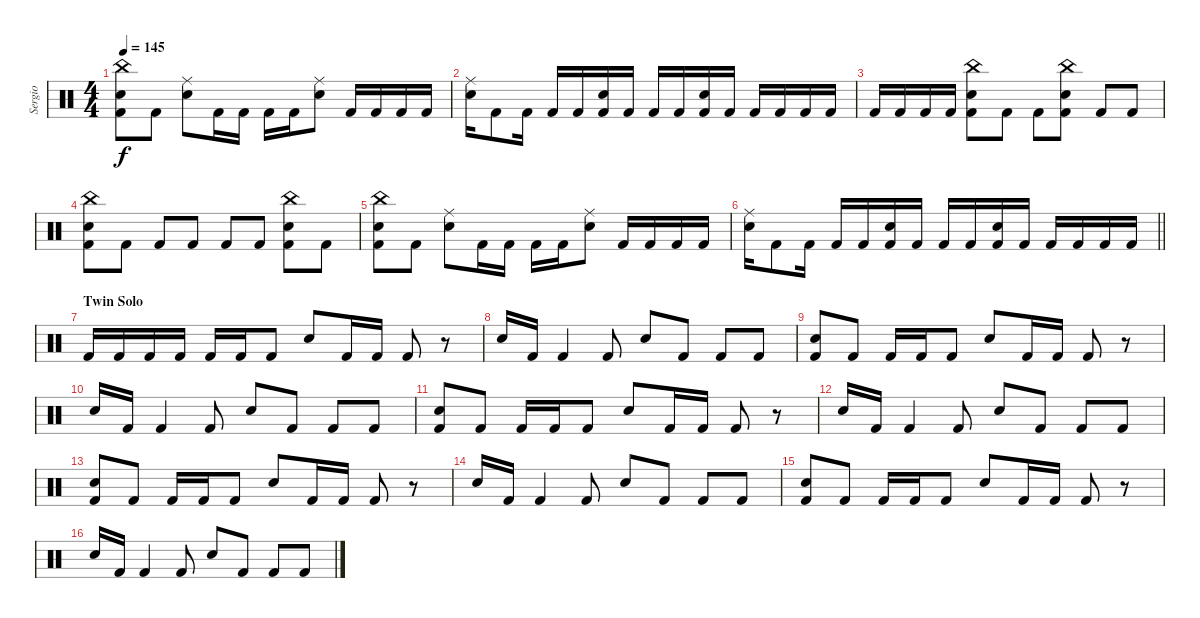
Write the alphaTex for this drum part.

\track ("Sergio" "Sergio") {instrument percussion}
\staff {score}
\articulation defaults
\ts (4 4)
\tempo 145
\clef neutral
\ks c
("China (hit)" "Electric Snare (hit)" "Kick (hit) 2").8{dy f} "Kick (hit) 2".8 ("Ride (middle)" "Electric Snare (hit)").8 "Kick (hit) 2".16 "Kick (hit) 2".16 "Kick (hit) 2".16 "Kick (hit) 2".16 ("Ride (middle)" "Electric Snare (hit)").8 "Kick (hit) 2".16 "Kick (hit) 2".16 "Kick (hit) 2".16 "Kick (hit) 2".16 |
("Ride (middle)" "Electric Snare (hit)").16 "Kick (hit) 2".8 "Kick (hit) 2".16 "Kick (hit) 2".16 "Kick (hit) 2".16 ("Electric Snare (hit)" "Kick (hit) 2").16 "Kick (hit) 2".16 "Kick (hit) 2".16 "Kick (hit) 2".16 ("Electric Snare (hit)" "Kick (hit) 2").16 "Kick (hit) 2".16 "Kick (hit) 2".16 "Kick (hit) 2".16 "Kick (hit) 2".16 "Kick (hit) 2".16 |
"Kick (hit) 2".16 "Kick (hit) 2".16 "Kick (hit) 2".16 "Kick (hit) 2".16 ("China (hit)" "Electric Snare (hit)" "Kick (hit) 2").8 "Kick (hit) 2".8 "Kick (hit) 2".8 ("China (hit)" "Electric Snare (hit)" "Kick (hit) 2").8 "Kick (hit) 2".8 "Kick (hit) 2".8 |
("China (hit)" "Electric Snare (hit)" "Kick (hit) 2").8 "Kick (hit) 2".8 "Kick (hit) 2".8 "Kick (hit) 2".8 "Kick (hit) 2".8 "Kick (hit) 2".8 ("China (hit)" "Electric Snare (hit)" "Kick (hit) 2").8 "Kick (hit) 2".8 |
("China (hit)" "Electric Snare (hit)" "Kick (hit) 2").8 "Kick (hit) 2".8 ("Ride (middle)" "Electric Snare (hit)").8 "Kick (hit) 2".16 "Kick (hit) 2".16 "Kick (hit) 2".16 "Kick (hit) 2".16 ("Ride (middle)" "Electric Snare (hit)").8 "Kick (hit) 2".16 "Kick (hit) 2".16 "Kick (hit) 2".16 "Kick (hit) 2".16 |
\barLineRight lightlight
("Ride (middle)" "Electric Snare (hit)").16 "Kick (hit) 2".8 "Kick (hit) 2".16 "Kick (hit) 2".16 "Kick (hit) 2".16 ("Electric Snare (hit)" "Kick (hit) 2").16 "Kick (hit) 2".16 "Kick (hit) 2".16 "Kick (hit) 2".16 ("Electric Snare (hit)" "Kick (hit) 2").16 "Kick (hit) 2".16 "Kick (hit) 2".16 "Kick (hit) 2".16 "Kick (hit) 2".16 "Kick (hit) 2".16 |
\section ("" "Twin Solo")
"Kick (hit) 2".16 "Kick (hit) 2".16 "Kick (hit) 2".16 "Kick (hit) 2".16 "Kick (hit) 2".16 "Kick (hit) 2".16 "Kick (hit) 2".8 "Electric Snare (hit)".8 "Kick (hit) 2".16 "Kick (hit) 2".16 "Kick (hit) 2".8 r.8 |
"Electric Snare (hit)".16 "Kick (hit) 2".16 "Kick (hit) 2".4 "Kick (hit) 2".8 "Electric Snare (hit)".8 "Kick (hit) 2".8 "Kick (hit) 2".8 "Kick (hit) 2".8 |
("Electric Snare (hit)" "Kick (hit) 2").8 "Kick (hit) 2".8 "Kick (hit) 2".16 "Kick (hit) 2".16 "Kick (hit) 2".8 "Electric Snare (hit)".8 "Kick (hit) 2".16 "Kick (hit) 2".16 "Kick (hit) 2".8 r.8 |
"Electric Snare (hit)".16 "Kick (hit) 2".16 "Kick (hit) 2".4 "Kick (hit) 2".8 "Electric Snare (hit)".8 "Kick (hit) 2".8 "Kick (hit) 2".8 "Kick (hit) 2".8 |
("Electric Snare (hit)" "Kick (hit) 2").8 "Kick (hit) 2".8 "Kick (hit) 2".16 "Kick (hit) 2".16 "Kick (hit) 2".8 "Electric Snare (hit)".8 "Kick (hit) 2".16 "Kick (hit) 2".16 "Kick (hit) 2".8 r.8 |
"Electric Snare (hit)".16 "Kick (hit) 2".16 "Kick (hit) 2".4 "Kick (hit) 2".8 "Electric Snare (hit)".8 "Kick (hit) 2".8 "Kick (hit) 2".8 "Kick (hit) 2".8 |
("Electric Snare (hit)" "Kick (hit) 2").8 "Kick (hit) 2".8 "Kick (hit) 2".16 "Kick (hit) 2".16 "Kick (hit) 2".8 "Electric Snare (hit)".8 "Kick (hit) 2".16 "Kick (hit) 2".16 "Kick (hit) 2".8 r.8 |
"Electric Snare (hit)".16 "Kick (hit) 2".16 "Kick (hit) 2".4 "Kick (hit) 2".8 "Electric Snare (hit)".8 "Kick (hit) 2".8 "Kick (hit) 2".8 "Kick (hit) 2".8 |
("Electric Snare (hit)" "Kick (hit) 2").8 "Kick (hit) 2".8 "Kick (hit) 2".16 "Kick (hit) 2".16 "Kick (hit) 2".8 "Electric Snare (hit)".8 "Kick (hit) 2".16 "Kick (hit) 2".16 "Kick (hit) 2".8 r.8 |
"Electric Snare (hit)".16 "Kick (hit) 2".16 "Kick (hit) 2".4 "Kick (hit) 2".8 "Electric Snare (hit)".8 "Kick (hit) 2".8 "Kick (hit) 2".8 "Kick (hit) 2".8
